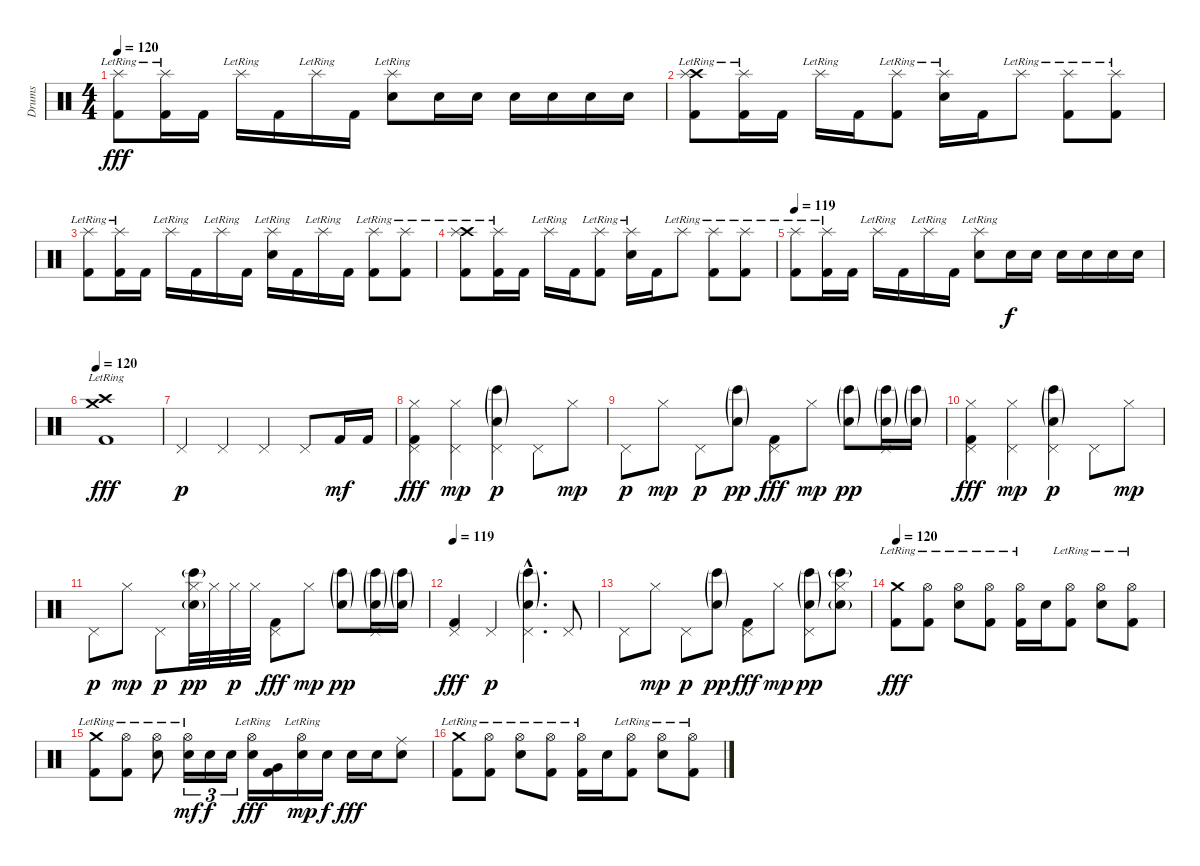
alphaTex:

\track ("Drums" "Drums") {instrument percussion}
\staff {score}
\articulation defaults
\ts (4 4)
\tempo 120
\clef neutral
\ks c
("Splash (hit)"{lr} "Kick (hit) 2").8{dy fff} ("Splash (hit)"{lr} "Kick (hit) 2").16 "Kick (hit) 2".16 "Splash (hit)"{lr}.16 "Kick (hit) 2".16 "Splash (hit)"{lr}.16 "Kick (hit) 2".16 ("Splash (hit)"{lr} "Electric Snare (hit)").8 "Electric Snare (hit)".16 "Electric Snare (hit)".16 "Electric Snare (hit)".16 "Electric Snare (hit)".16 "Electric Snare (hit)".16 "Electric Snare (hit)".16 |
("Crash high (hit)"{lr} "Splash (hit)"{lr} "Kick (hit) 2").8 ("Splash (hit)"{lr} "Kick (hit) 2").16 "Kick (hit) 2".16 "Splash (hit)"{lr}.16 "Kick (hit) 2".16 ("Splash (hit)"{lr} "Kick (hit) 2").8 ("Splash (hit)"{lr} "Electric Snare (hit)").16 "Kick (hit) 2".16 "Splash (hit)"{lr}.8 ("Splash (hit)"{lr} "Kick (hit) 2").8 ("Splash (hit)"{lr} "Kick (hit) 2").8 |
("Splash (hit)"{lr} "Kick (hit) 2").8 ("Splash (hit)"{lr} "Kick (hit) 2").16 "Kick (hit) 2".16 "Splash (hit)"{lr}.16 "Kick (hit) 2".16 "Splash (hit)"{lr}.16 "Kick (hit) 2".16 ("Splash (hit)"{lr} "Electric Snare (hit)").16 "Kick (hit) 2".16 "Splash (hit)"{lr}.16 "Kick (hit) 2".16 ("Splash (hit)"{lr} "Kick (hit) 2").8 ("Splash (hit)"{lr} "Kick (hit) 2").8 |
("Crash high (hit)"{lr} "Splash (hit)"{lr} "Kick (hit) 2").8 ("Splash (hit)"{lr} "Kick (hit) 2").16 "Kick (hit) 2".16 "Splash (hit)"{lr}.16 "Kick (hit) 2".16 ("Splash (hit)"{lr} "Kick (hit) 2").8 ("Splash (hit)"{lr} "Electric Snare (hit)").16 "Kick (hit) 2".16 "Splash (hit)"{lr}.8 ("Splash (hit)"{lr} "Kick (hit) 2").8 ("Splash (hit)"{lr} "Kick (hit) 2").8 |
\tempo 119
("Splash (hit)"{lr} "Kick (hit) 2").8 ("Splash (hit)"{lr} "Kick (hit) 2").16 "Kick (hit) 2".16 "Splash (hit)"{lr}.16 "Kick (hit) 2".16 "Splash (hit)"{lr}.16 "Kick (hit) 2".16 ("Splash (hit)"{lr} "Electric Snare (hit)").8 "Electric Snare (hit)".16{dy f} "Electric Snare (hit)".16 "Electric Snare (hit)".16 "Electric Snare (hit)".16 "Electric Snare (hit)".16 "Electric Snare (hit)".16 |
\tempo 120
("Crash high (hit)"{lr} "Crash medium (hit)"{lr} "Kick (hit) 2").1{dy fff} |
"Pedal Hi-Hat (hit)".4{dy p} "Pedal Hi-Hat (hit)".4 "Pedal Hi-Hat (hit)".4 "Pedal Hi-Hat (hit)".8 "Kick (hit) 2".16{dy mf} "Kick (hit) 2".16 |
("Pedal Hi-Hat (hit)" "Hi-Hat (closed)" "Kick (hit) 2").4{dy fff} ("Pedal Hi-Hat (hit)" "Hi-Hat (closed)").4{dy mp} ("Pedal Hi-Hat (hit)" "Bongo High (hit)"{g} "Electric Snare (hit)"{g}).4{dy p} "Pedal Hi-Hat (hit)".8 "Hi-Hat (closed)".8{dy mp} |
"Pedal Hi-Hat (hit)".8{dy p} "Hi-Hat (closed)".8{dy mp} "Pedal Hi-Hat (hit)".8{dy p} ("Bongo High (hit)"{g} "Electric Snare (hit)"{g}).8{dy pp} ("Pedal Hi-Hat (hit)" "Kick (hit) 2").8{dy fff} "Hi-Hat (closed)".8{dy mp} ("Bongo High (hit)"{g} "Electric Snare (hit)"{g}).8{dy pp} ("Pedal Hi-Hat (hit)" "Bongo High (hit)"{g} "Electric Snare (hit)"{g}).16 ("Bongo High (hit)"{g} "Electric Snare (hit)"{g}).16 |
("Pedal Hi-Hat (hit)" "Hi-Hat (closed)" "Kick (hit) 2").4{dy fff} ("Pedal Hi-Hat (hit)" "Hi-Hat (closed)").4{dy mp} ("Pedal Hi-Hat (hit)" "Bongo High (hit)"{g} "Electric Snare (hit)"{g}).4{dy p} "Pedal Hi-Hat (hit)".8 "Hi-Hat (closed)".8{dy mp} |
"Pedal Hi-Hat (hit)".8{dy p} "Hi-Hat (closed)".8{dy mp} "Pedal Hi-Hat (hit)".8{dy p} ("Hi-Hat (closed)" "Bongo High (hit)"{g} "Electric Snare (hit)"{g}).32{dy pp} "Hi-Hat (closed)".32 "Hi-Hat (closed)".32{dy p} "Hi-Hat (closed)".32 ("Pedal Hi-Hat (hit)" "Kick (hit) 2").8{dy fff} "Hi-Hat (closed)".8{dy mp} ("Bongo High (hit)"{g} "Electric Snare (hit)"{g}).8{dy pp} ("Pedal Hi-Hat (hit)" "Bongo High (hit)"{g} "Electric Snare (hit)"{g}).16 ("Bongo High (hit)"{g} "Electric Snare (hit)"{g}).16 |
\tempo 119
("Pedal Hi-Hat (hit)" "Kick (hit) 2").4{dy fff} "Pedal Hi-Hat (hit)".4{dy p} ("Pedal Hi-Hat (hit)"{hac} "Bongo High (hit)"{g hac} "Electric Snare (hit)"{g hac}).4{d} "Pedal Hi-Hat (hit)".8 |
"Pedal Hi-Hat (hit)".8 "Hi-Hat (closed)".8{dy mp} "Pedal Hi-Hat (hit)".8{dy p} ("Bongo High (hit)"{g} "Electric Snare (hit)"{g}).8{dy pp} ("Pedal Hi-Hat (hit)" "Kick (hit) 2").8{dy fff} "Hi-Hat (closed)".8{dy mp} ("Pedal Hi-Hat (hit)" "Bongo High (hit)"{g} "Electric Snare (hit)"{g}).8{dy pp} ("Hi-Hat (closed)" "Bongo High (hit)"{g} "Electric Snare (hit)"{g}).8 |
\tempo 120
("Crash medium (hit)"{lr} "Kick (hit) 2").8{dy fff} ("Hi-Hat (open)"{lr} "Kick (hit) 2").8 ("Hi-Hat (open)"{lr} "Electric Snare (hit)").8 ("Hi-Hat (open)"{lr} "Kick (hit) 2").8 ("Hi-Hat (open)"{lr} "Kick (hit) 2").16 "Electric Snare (hit)".16 ("Hi-Hat (open)"{lr} "Kick (hit) 2").8 ("Hi-Hat (open)"{lr} "Electric Snare (hit)").8 ("Hi-Hat (open)"{lr} "Kick (hit) 2").8 |
("Crash medium (hit)"{lr} "Kick (hit) 2").8 ("Hi-Hat (open)"{lr} "Kick (hit) 2").8 ("Hi-Hat (open)"{lr} "Electric Snare (hit)").8 ("Hi-Hat (open)"{lr} "Electric Snare (hit)").16{tu (3 2) dy mf} "Electric Snare (hit)".16{tu (3 2) dy f} "Electric Snare (hit)".16{tu (3 2)} ("Hi-Hat (open)"{lr} "Electric Snare (hit)").16{dy fff} ("Very Low Tom (hit)" "Kick (hit) 2").16 ("Hi-Hat (open)"{lr} "Electric Snare (hit)").16{dy mp} "Electric Snare (hit)".16{dy f} "Electric Snare (hit)".16{dy fff} "Electric Snare (hit)".16 ("Ride (middle)" "Electric Snare (hit)").8 |
("Crash medium (hit)"{lr} "Kick (hit) 2").8 ("Hi-Hat (open)"{lr} "Kick (hit) 2").8 ("Hi-Hat (open)"{lr} "Electric Snare (hit)").8 ("Hi-Hat (open)"{lr} "Kick (hit) 2").8 ("Hi-Hat (open)"{lr} "Kick (hit) 2").16 "Electric Snare (hit)".16 ("Hi-Hat (open)"{lr} "Kick (hit) 2").8 ("Hi-Hat (open)"{lr} "Electric Snare (hit)").8 ("Hi-Hat (open)"{lr} "Kick (hit) 2").8
